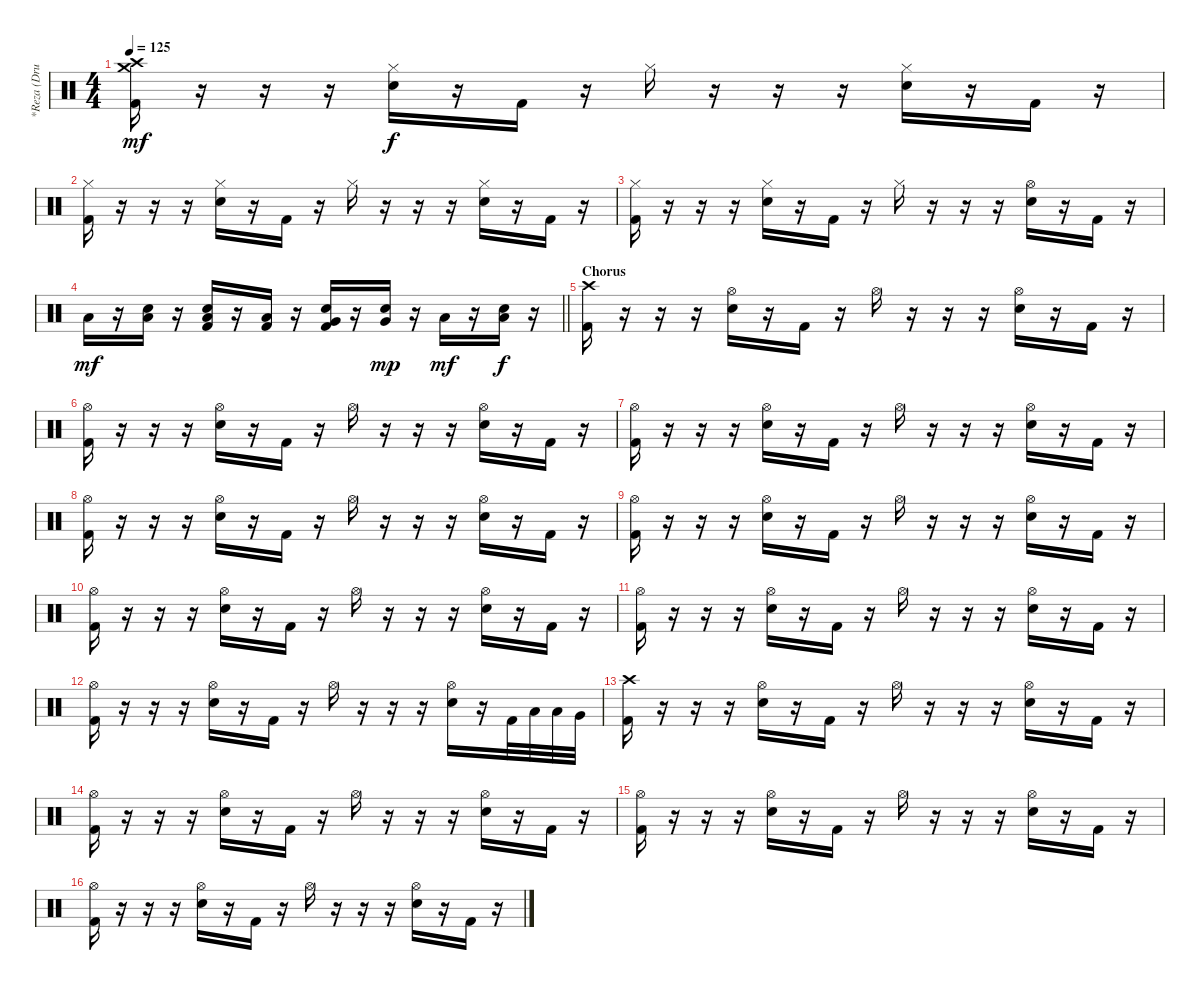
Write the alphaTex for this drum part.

\track ("*Reza (Drum)" "*Reza (Dru") {instrument percussion}
\staff {score}
\articulation defaults
\ts (4 4)
\tempo 125
\clef neutral
\ks c
("Crash high (hit)" "Crash medium (hit)" "Kick (hit) 2").16{dy mf} r.16 r.16 r.16 ("Hi-Hat (closed)" "Electric Snare (hit)").16{dy f} r.16 "Kick (hit) 2".16 r.16 "Hi-Hat (closed)".16 r.16 r.16 r.16 ("Hi-Hat (closed)" "Electric Snare (hit)").16 r.16 "Kick (hit) 2".16 r.16 |
("Hi-Hat (closed)" "Kick (hit) 2").16 r.16 r.16 r.16 ("Hi-Hat (closed)" "Electric Snare (hit)").16 r.16 "Kick (hit) 2".16 r.16 "Hi-Hat (closed)".16 r.16 r.16 r.16 ("Hi-Hat (closed)" "Electric Snare (hit)").16 r.16 "Kick (hit) 2".16 r.16 |
("Hi-Hat (closed)" "Kick (hit) 2").16 r.16 r.16 r.16 ("Hi-Hat (closed)" "Electric Snare (hit)").16 r.16 "Kick (hit) 2".16 r.16 "Hi-Hat (closed)".16 r.16 r.16 r.16 ("Hi-Hat (open)" "Electric Snare (hit)").16 r.16 "Kick (hit) 2".16 r.16 |
\barLineRight lightlight "Low Floor Tom (hit)".16{dy mf}
r.16 ("Electric Snare (hit)" "Low Floor Tom (hit)").16 r.16 ("Electric Snare (hit)" "Low Tom (hit)" "Kick (hit) 2").16 r.16 ("Low Tom (hit)" "Kick (hit) 2").16 r.16 ("Electric Snare (hit)" "Very Low Tom (hit)" "Kick (hit) 2").16 r.16 ("Electric Snare (hit)" "Very Low Tom (hit)").16{dy mp} r.16 "Low Floor Tom (hit)".16{dy mf} r.16 ("Electric Snare (hit)" "Low Floor Tom (hit)").16{dy f} r.16 |
\section ("" "Chorus")
("Crash high (hit)" "Kick (hit) 2").16 r.16 r.16 r.16 ("Hi-Hat (open)" "Electric Snare (hit)").16 r.16 "Kick (hit) 2".16 r.16 "Hi-Hat (open)".16 r.16 r.16 r.16 ("Hi-Hat (open)" "Electric Snare (hit)").16 r.16 "Kick (hit) 2".16 r.16 |
("Hi-Hat (open)" "Kick (hit) 2").16 r.16 r.16 r.16 ("Hi-Hat (open)" "Electric Snare (hit)").16 r.16 "Kick (hit) 2".16 r.16 "Hi-Hat (open)".16 r.16 r.16 r.16 ("Hi-Hat (open)" "Electric Snare (hit)").16 r.16 "Kick (hit) 2".16 r.16 |
("Hi-Hat (open)" "Kick (hit) 2").16 r.16 r.16 r.16 ("Hi-Hat (open)" "Electric Snare (hit)").16 r.16 "Kick (hit) 2".16 r.16 "Hi-Hat (open)".16 r.16 r.16 r.16 ("Hi-Hat (open)" "Electric Snare (hit)").16 r.16 "Kick (hit) 2".16 r.16 |
("Hi-Hat (open)" "Kick (hit) 2").16 r.16 r.16 r.16 ("Hi-Hat (open)" "Electric Snare (hit)").16 r.16 "Kick (hit) 2".16 r.16 "Hi-Hat (open)".16 r.16 r.16 r.16 ("Hi-Hat (open)" "Electric Snare (hit)").16 r.16 "Kick (hit) 2".16 r.16 |
("Hi-Hat (open)" "Kick (hit) 2").16 r.16 r.16 r.16 ("Hi-Hat (open)" "Electric Snare (hit)").16 r.16 "Kick (hit) 2".16 r.16 "Hi-Hat (open)".16 r.16 r.16 r.16 ("Hi-Hat (open)" "Electric Snare (hit)").16 r.16 "Kick (hit) 2".16 r.16 |
("Hi-Hat (open)" "Kick (hit) 2").16 r.16 r.16 r.16 ("Hi-Hat (open)" "Electric Snare (hit)").16 r.16 "Kick (hit) 2".16 r.16 "Hi-Hat (open)".16 r.16 r.16 r.16 ("Hi-Hat (open)" "Electric Snare (hit)").16 r.16 "Kick (hit) 2".16 r.16 |
("Hi-Hat (open)" "Kick (hit) 2").16 r.16 r.16 r.16 ("Hi-Hat (open)" "Electric Snare (hit)").16 r.16 "Kick (hit) 2".16 r.16 "Hi-Hat (open)".16 r.16 r.16 r.16 ("Hi-Hat (open)" "Electric Snare (hit)").16 r.16 "Kick (hit) 2".16 r.16 |
("Hi-Hat (open)" "Kick (hit) 2").16 r.16 r.16 r.16 ("Hi-Hat (open)" "Electric Snare (hit)").16 r.16 "Kick (hit) 2".16 r.16 "Hi-Hat (open)".16 r.16 r.16 r.16 ("Hi-Hat (open)" "Electric Snare (hit)").16 r.16 "Kick (hit) 2".32 "Low Tom (hit)".32 "Low Tom (hit)".32 "Very Low Tom (hit)".32 |
("Crash high (hit)" "Kick (hit) 2").16 r.16 r.16 r.16 ("Hi-Hat (open)" "Electric Snare (hit)").16 r.16 "Kick (hit) 2".16 r.16 "Hi-Hat (open)".16 r.16 r.16 r.16 ("Hi-Hat (open)" "Electric Snare (hit)").16 r.16 "Kick (hit) 2".16 r.16 |
("Hi-Hat (open)" "Kick (hit) 2").16 r.16 r.16 r.16 ("Hi-Hat (open)" "Electric Snare (hit)").16 r.16 "Kick (hit) 2".16 r.16 "Hi-Hat (open)".16 r.16 r.16 r.16 ("Hi-Hat (open)" "Electric Snare (hit)").16 r.16 "Kick (hit) 2".16 r.16 |
("Hi-Hat (open)" "Kick (hit) 2").16 r.16 r.16 r.16 ("Hi-Hat (open)" "Electric Snare (hit)").16 r.16 "Kick (hit) 2".16 r.16 "Hi-Hat (open)".16 r.16 r.16 r.16 ("Hi-Hat (open)" "Electric Snare (hit)").16 r.16 "Kick (hit) 2".16 r.16 |
("Hi-Hat (open)" "Kick (hit) 2").16 r.16 r.16 r.16 ("Hi-Hat (open)" "Electric Snare (hit)").16 r.16 "Kick (hit) 2".16 r.16 "Hi-Hat (open)".16 r.16 r.16 r.16 ("Hi-Hat (open)" "Electric Snare (hit)").16 r.16 "Kick (hit) 2".16 r.16
